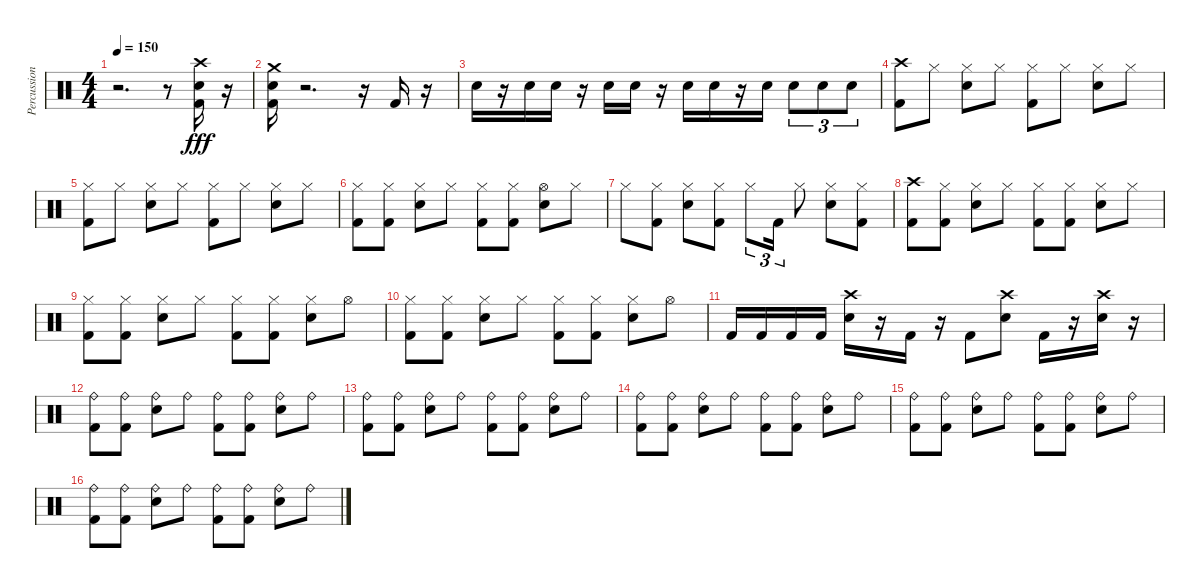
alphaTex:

\track ("Percussion" "Percussion") {instrument percussion}
\staff {score}
\articulation defaults
\ts (4 4)
\tempo 150
\clef neutral
\ks c
r.2{d dy fff} r.8 ("Kick (hit) 2" "Snare (hit) 2" "Crash high (hit)").16 r.16 |
("Kick (hit) 2" "Snare (hit) 2" "Crash medium (hit)").16 r.2{d} r.16 "Kick (hit) 2".16 r.16 |
"Snare (hit) 2".16 r.16 "Snare (hit) 2".16 "Snare (hit) 2".16 r.16 "Snare (hit) 2".16 "Snare (hit) 2".16 r.16 "Snare (hit) 2".16 "Snare (hit) 2".16 r.16 "Snare (hit) 2".16 "Snare (hit) 2".8{tu (3 2)} "Snare (hit) 2".8{tu (3 2)} "Snare (hit) 2".8{tu (3 2)} |
("Crash high (hit)" "Kick (hit) 2").8 "Hi-Hat (closed)".8 ("Snare (hit) 2" "Hi-Hat (closed)").8 "Hi-Hat (closed)".8 ("Kick (hit) 2" "Hi-Hat (closed)").8 "Hi-Hat (closed)".8 ("Snare (hit) 2" "Hi-Hat (closed)").8 "Hi-Hat (closed)".8 |
("Kick (hit) 2" "Hi-Hat (closed)").8 "Hi-Hat (closed)".8 ("Snare (hit) 2" "Hi-Hat (closed)").8 "Hi-Hat (closed)".8 ("Kick (hit) 2" "Hi-Hat (closed)").8 "Hi-Hat (closed)".8 ("Snare (hit) 2" "Hi-Hat (closed)").8 "Hi-Hat (closed)".8 |
("Kick (hit) 2" "Hi-Hat (closed)").8 ("Kick (hit) 2" "Hi-Hat (closed)").8 ("Snare (hit) 2" "Hi-Hat (closed)").8 "Hi-Hat (closed)".8 ("Kick (hit) 2" "Hi-Hat (closed)").8 ("Kick (hit) 2" "Hi-Hat (closed)").8 ("Snare (hit) 2" "Hi-Hat (open)").8 "Hi-Hat (closed)".8 |
"Hi-Hat (closed)".8 ("Kick (hit) 2" "Hi-Hat (closed)").8 ("Snare (hit) 2" "Hi-Hat (closed)").8 ("Hi-Hat (closed)" "Kick (hit) 2").8 "Hi-Hat (closed)".8{tu (3 2)} "Kick (hit) 2".16{tu (3 2)} "Hi-Hat (closed)".8 ("Snare (hit) 2" "Hi-Hat (closed)").8 ("Hi-Hat (closed)" "Kick (hit) 2").8 |
("Kick (hit) 2" "Crash high (hit)").8 ("Kick (hit) 2" "Hi-Hat (closed)").8 ("Snare (hit) 2" "Hi-Hat (closed)").8 "Hi-Hat (closed)".8 ("Kick (hit) 2" "Hi-Hat (closed)").8 ("Kick (hit) 2" "Hi-Hat (closed)").8 ("Snare (hit) 2" "Hi-Hat (closed)").8 "Hi-Hat (closed)".8 |
("Kick (hit) 2" "Hi-Hat (closed)").8 ("Kick (hit) 2" "Hi-Hat (closed)").8 ("Snare (hit) 2" "Hi-Hat (closed)").8 "Hi-Hat (closed)".8 ("Kick (hit) 2" "Hi-Hat (closed)").8 ("Kick (hit) 2" "Hi-Hat (closed)").8 ("Snare (hit) 2" "Hi-Hat (closed)").8 "Hi-Hat (open)".8 |
("Hi-Hat (closed)" "Kick (hit) 2").8 ("Kick (hit) 2" "Hi-Hat (closed)").8 ("Snare (hit) 2" "Hi-Hat (closed)").8 "Hi-Hat (closed)".8 ("Kick (hit) 2" "Hi-Hat (closed)").8 ("Kick (hit) 2" "Hi-Hat (closed)").8 ("Snare (hit) 2" "Hi-Hat (closed)").8 "Hi-Hat (open)".8 |
"Kick (hit) 2".16 "Kick (hit) 2".16 "Kick (hit) 2".16 "Kick (hit) 2".16 ("Snare (hit) 2" "Crash high (hit)").16 r.16 "Kick (hit) 2".16 r.16 "Kick (hit) 2".8 ("Snare (hit) 2" "Crash high (hit)").8 "Kick (hit) 2".16 r.16 ("Snare (hit) 2" "Crash high (hit)").16 r.16 |
("Ride (bell)" "Kick (hit) 2").8 ("Kick (hit) 2" "Ride (bell)").8 ("Snare (hit) 2" "Ride (bell)").8 "Ride (bell)".8 ("Kick (hit) 2" "Ride (bell)").8 ("Kick (hit) 2" "Ride (bell)").8 ("Snare (hit) 2" "Ride (bell)").8 "Ride (bell)".8 |
("Ride (bell)" "Kick (hit) 2").8 ("Kick (hit) 2" "Ride (bell)").8 ("Snare (hit) 2" "Ride (bell)").8 "Ride (bell)".8 ("Kick (hit) 2" "Ride (bell)").8 ("Kick (hit) 2" "Ride (bell)").8 ("Snare (hit) 2" "Ride (bell)").8 "Ride (bell)".8 |
("Ride (bell)" "Kick (hit) 2").8 ("Kick (hit) 2" "Ride (bell)").8 ("Snare (hit) 2" "Ride (bell)").8 "Ride (bell)".8 ("Kick (hit) 2" "Ride (bell)").8 ("Kick (hit) 2" "Ride (bell)").8 ("Snare (hit) 2" "Ride (bell)").8 "Ride (bell)".8 |
("Ride (bell)" "Kick (hit) 2").8 ("Kick (hit) 2" "Ride (bell)").8 ("Snare (hit) 2" "Ride (bell)").8 "Ride (bell)".8 ("Kick (hit) 2" "Ride (bell)").8 ("Kick (hit) 2" "Ride (bell)").8 ("Snare (hit) 2" "Ride (bell)").8 "Ride (bell)".8 |
("Ride (bell)" "Kick (hit) 2").8 ("Kick (hit) 2" "Ride (bell)").8 ("Snare (hit) 2" "Ride (bell)").8 "Ride (bell)".8 ("Kick (hit) 2" "Ride (bell)").8 ("Kick (hit) 2" "Ride (bell)").8 ("Snare (hit) 2" "Ride (bell)").8 "Ride (bell)".8
